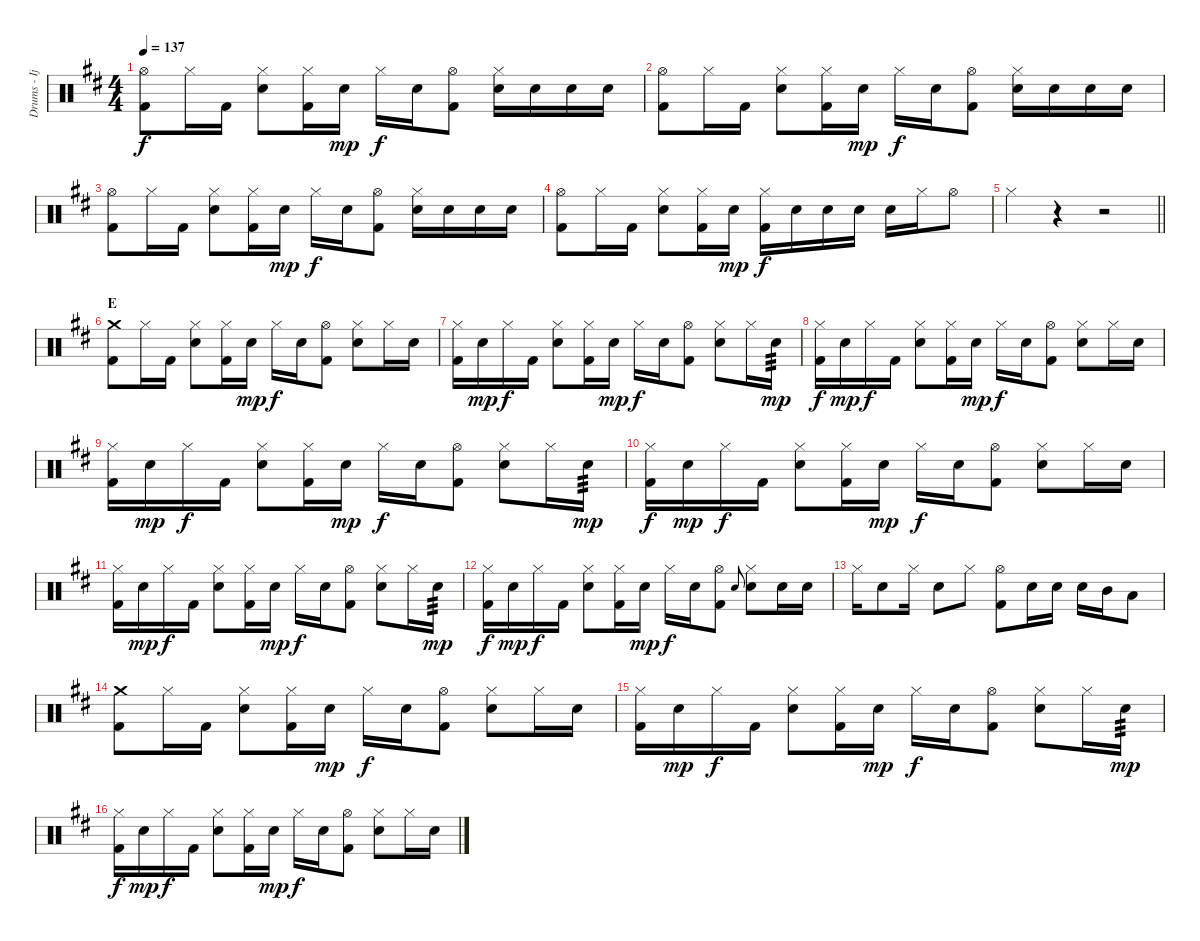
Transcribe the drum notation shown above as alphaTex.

\track ("Drums - Ijichi" "Drums - Ij") {instrument percussion}
\staff {score}
\articulation defaults
\ts (4 4)
\tempo 137
\clef neutral
\ks d
("Hi-Hat (open)" "Kick (hit) 2").8{dy f} "Hi-Hat (closed)".16 "Kick (hit) 2".16 ("Hi-Hat (closed)" "Electric Snare (hit)").8 ("Hi-Hat (closed)" "Kick (hit) 2").16 "Electric Snare (hit)".16{dy mp} "Hi-Hat (closed)".16{dy f} "Electric Snare (hit)".16 ("Hi-Hat (open)" "Kick (hit) 2").8 ("Hi-Hat (closed)" "Electric Snare (hit)").16 "Electric Snare (hit)".16 "Electric Snare (hit)".16 "Electric Snare (hit)".16 |
("Hi-Hat (open)" "Kick (hit) 2").8 "Hi-Hat (closed)".16 "Kick (hit) 2".16 ("Hi-Hat (closed)" "Electric Snare (hit)").8 ("Hi-Hat (closed)" "Kick (hit) 2").16 "Electric Snare (hit)".16{dy mp} "Hi-Hat (closed)".16{dy f} "Electric Snare (hit)".16 ("Hi-Hat (open)" "Kick (hit) 2").8 ("Hi-Hat (closed)" "Electric Snare (hit)").16 "Electric Snare (hit)".16 "Electric Snare (hit)".16 "Electric Snare (hit)".16 |
("Hi-Hat (open)" "Kick (hit) 2").8 "Hi-Hat (closed)".16 "Kick (hit) 2".16 ("Hi-Hat (closed)" "Electric Snare (hit)").8 ("Hi-Hat (closed)" "Kick (hit) 2").16 "Electric Snare (hit)".16{dy mp} "Hi-Hat (closed)".16{dy f} "Electric Snare (hit)".16 ("Hi-Hat (open)" "Kick (hit) 2").8 ("Hi-Hat (closed)" "Electric Snare (hit)").16 "Electric Snare (hit)".16 "Electric Snare (hit)".16 "Electric Snare (hit)".16 |
("Hi-Hat (open)" "Kick (hit) 2").8 "Hi-Hat (closed)".16 "Kick (hit) 2".16 ("Hi-Hat (closed)" "Electric Snare (hit)").8 ("Hi-Hat (closed)" "Kick (hit) 2").16 "Electric Snare (hit)".16{dy mp} ("Hi-Hat (closed)" "Kick (hit) 2").16{dy f} "Electric Snare (hit)".16 "Electric Snare (hit)".16 "Electric Snare (hit)".16 "Electric Snare (hit)".16 "Hi-Hat (closed)".16 "Hi-Hat (open)".8 |
\barLineRight lightlight "Hi-Hat (closed)".4
r.4 r.2 |
\section ("" "E")
("Crash medium (hit)" "Kick (hit) 2").8 "Hi-Hat (closed)".16 "Kick (hit) 2".16 ("Hi-Hat (closed)" "Electric Snare (hit)").8 ("Hi-Hat (closed)" "Kick (hit) 2").16 "Electric Snare (hit)".16{dy mp} "Hi-Hat (closed)".16{dy f} "Electric Snare (hit)".16 ("Hi-Hat (open)" "Kick (hit) 2").8 ("Hi-Hat (closed)" "Electric Snare (hit)").8 "Hi-Hat (closed)".16 "Electric Snare (hit)".16 |
("Hi-Hat (closed)" "Kick (hit) 2").16 "Electric Snare (hit)".16{dy mp} "Hi-Hat (closed)".16{dy f} "Kick (hit) 2".16 ("Hi-Hat (closed)" "Electric Snare (hit)").8 ("Hi-Hat (closed)" "Kick (hit) 2").16 "Electric Snare (hit)".16{dy mp} "Hi-Hat (closed)".16{dy f} "Electric Snare (hit)".16 ("Hi-Hat (open)" "Kick (hit) 2").8 ("Hi-Hat (closed)" "Electric Snare (hit)").8 "Hi-Hat (closed)".16 "Electric Snare (hit)".16{tp 3 dy mp} |
("Hi-Hat (closed)" "Kick (hit) 2").16{dy f} "Electric Snare (hit)".16{dy mp} "Hi-Hat (closed)".16{dy f} "Kick (hit) 2".16 ("Hi-Hat (closed)" "Electric Snare (hit)").8 ("Hi-Hat (closed)" "Kick (hit) 2").16 "Electric Snare (hit)".16{dy mp} "Hi-Hat (closed)".16{dy f} "Electric Snare (hit)".16 ("Hi-Hat (open)" "Kick (hit) 2").8 ("Hi-Hat (closed)" "Electric Snare (hit)").8 "Hi-Hat (closed)".16 "Electric Snare (hit)".16 |
("Hi-Hat (closed)" "Kick (hit) 2").16 "Electric Snare (hit)".16{dy mp} "Hi-Hat (closed)".16{dy f} "Kick (hit) 2".16 ("Hi-Hat (closed)" "Electric Snare (hit)").8 ("Hi-Hat (closed)" "Kick (hit) 2").16 "Electric Snare (hit)".16{dy mp} "Hi-Hat (closed)".16{dy f} "Electric Snare (hit)".16 ("Hi-Hat (open)" "Kick (hit) 2").8 ("Hi-Hat (closed)" "Electric Snare (hit)").8 "Hi-Hat (closed)".16 "Electric Snare (hit)".16{tp 3 dy mp} |
("Hi-Hat (closed)" "Kick (hit) 2").16{dy f} "Electric Snare (hit)".16{dy mp} "Hi-Hat (closed)".16{dy f} "Kick (hit) 2".16 ("Hi-Hat (closed)" "Electric Snare (hit)").8 ("Hi-Hat (closed)" "Kick (hit) 2").16 "Electric Snare (hit)".16{dy mp} "Hi-Hat (closed)".16{dy f} "Electric Snare (hit)".16 ("Hi-Hat (open)" "Kick (hit) 2").8 ("Hi-Hat (closed)" "Electric Snare (hit)").8 "Hi-Hat (closed)".16 "Electric Snare (hit)".16 |
("Hi-Hat (closed)" "Kick (hit) 2").16 "Electric Snare (hit)".16{dy mp} "Hi-Hat (closed)".16{dy f} "Kick (hit) 2".16 ("Hi-Hat (closed)" "Electric Snare (hit)").8 ("Hi-Hat (closed)" "Kick (hit) 2").16 "Electric Snare (hit)".16{dy mp} "Hi-Hat (closed)".16{dy f} "Electric Snare (hit)".16 ("Hi-Hat (open)" "Kick (hit) 2").8 ("Hi-Hat (closed)" "Electric Snare (hit)").8 "Hi-Hat (closed)".16 "Electric Snare (hit)".16{tp 3 dy mp} |
("Hi-Hat (closed)" "Kick (hit) 2").16{dy f} "Electric Snare (hit)".16{dy mp} "Hi-Hat (closed)".16{dy f} "Kick (hit) 2".16 ("Hi-Hat (closed)" "Electric Snare (hit)").8 ("Hi-Hat (closed)" "Kick (hit) 2").16 "Electric Snare (hit)".16{dy mp} "Hi-Hat (closed)".16{dy f} "Electric Snare (hit)".16 ("Hi-Hat (open)" "Kick (hit) 2").8 "Electric Snare (hit)".8{gr onbeat} ("Hi-Hat (closed)" "Electric Snare (hit)").8 "Electric Snare (hit)".16 "Electric Snare (hit)".16 |
"Hi-Hat (closed)".16 "Electric Snare (hit)".8 "Hi-Hat (closed)".16 "Electric Snare (hit)".8 "Hi-Hat (closed)".8 ("Hi-Hat (open)" "Kick (hit) 2").8 "Electric Snare (hit)".16 "Electric Snare (hit)".16 "Electric Snare (hit)".16 "Mid Tom (hit)".16 "Low Tom (hit)".8 |
("Crash medium (hit)" "Kick (hit) 2").8 "Hi-Hat (closed)".16 "Kick (hit) 2".16 ("Hi-Hat (closed)" "Electric Snare (hit)").8 ("Hi-Hat (closed)" "Kick (hit) 2").16 "Electric Snare (hit)".16{dy mp} "Hi-Hat (closed)".16{dy f} "Electric Snare (hit)".16 ("Hi-Hat (open)" "Kick (hit) 2").8 ("Hi-Hat (closed)" "Electric Snare (hit)").8 "Hi-Hat (closed)".16 "Electric Snare (hit)".16 |
("Hi-Hat (closed)" "Kick (hit) 2").16 "Electric Snare (hit)".16{dy mp} "Hi-Hat (closed)".16{dy f} "Kick (hit) 2".16 ("Hi-Hat (closed)" "Electric Snare (hit)").8 ("Hi-Hat (closed)" "Kick (hit) 2").16 "Electric Snare (hit)".16{dy mp} "Hi-Hat (closed)".16{dy f} "Electric Snare (hit)".16 ("Hi-Hat (open)" "Kick (hit) 2").8 ("Hi-Hat (closed)" "Electric Snare (hit)").8 "Hi-Hat (closed)".16 "Electric Snare (hit)".16{tp 3 dy mp} |
("Hi-Hat (closed)" "Kick (hit) 2").16{dy f} "Electric Snare (hit)".16{dy mp} "Hi-Hat (closed)".16{dy f} "Kick (hit) 2".16 ("Hi-Hat (closed)" "Electric Snare (hit)").8 ("Hi-Hat (closed)" "Kick (hit) 2").16 "Electric Snare (hit)".16{dy mp} "Hi-Hat (closed)".16{dy f} "Electric Snare (hit)".16 ("Hi-Hat (open)" "Kick (hit) 2").8 ("Hi-Hat (closed)" "Electric Snare (hit)").8 "Hi-Hat (closed)".16 "Electric Snare (hit)".16
